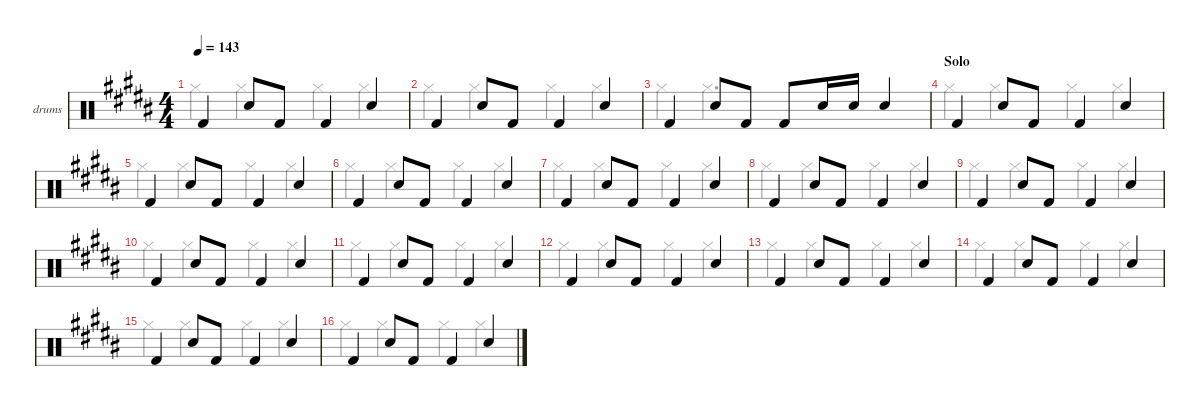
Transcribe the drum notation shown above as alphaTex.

\defaultSystemsLayout 4
\hideDynamics
\bracketExtendMode nobrackets
\firstSystemTrackNameOrientation horizontal
\otherSystemsTrackNameOrientation horizontal
\track ("Drumkit" "drums") {instrument percussion}
\staff {score}
\articulation defaults
\voice
\ts (4 4)
\tempo 143
\clef neutral
\ks g#minor "Kick (hit) 2"{acc forcenatural}.4{dy mf beam Up} "Snare (hit) 2"{acc forcenatural}.8{beam Up} "Kick (hit) 2"{acc forcenatural}.8{beam Up} "Kick (hit) 2"{acc forcenatural}.4{beam Up} "Snare (hit) 2"{acc forcenatural}.4{beam Up}
|
"Kick (hit) 2"{acc forcenatural}.4{beam Up} "Snare (hit) 2"{acc forcenatural}.8{beam Up} "Kick (hit) 2"{acc forcenatural}.8{beam Up} "Kick (hit) 2"{acc forcenatural}.4{beam Up} "Snare (hit) 2"{acc forcenatural}.4{beam Up} |
"Kick (hit) 2"{acc forcenatural}.4{beam Up} "Snare (hit) 2"{acc forcenatural}.8{beam Up} "Kick (hit) 2"{acc forcenatural}.8{beam Up} "Kick (hit) 2"{acc forcenatural}.8{beam Up} "Snare (hit) 2"{acc forcenatural}.16{beam Up} "Snare (hit) 2"{acc forcenatural}.16{beam Up} "Snare (hit) 2"{acc forcenatural}.4{beam Up} |
\section ("" "Solo")
"Kick (hit) 2"{acc forcenatural}.4{beam Up} "Snare (hit) 2"{acc forcenatural}.8{beam Up} "Kick (hit) 2"{acc forcenatural}.8{beam Up} "Kick (hit) 2"{acc forcenatural}.4{beam Up} "Snare (hit) 2"{acc forcenatural}.4{beam Up} |
"Kick (hit) 2"{acc forcenatural}.4{beam Up} "Snare (hit) 2"{acc forcenatural}.8{beam Up} "Kick (hit) 2"{acc forcenatural}.8{beam Up} "Kick (hit) 2"{acc forcenatural}.4{beam Up} "Snare (hit) 2"{acc forcenatural}.4{beam Up} |
"Kick (hit) 2"{acc forcenatural}.4{beam Up} "Snare (hit) 2"{acc forcenatural}.8{beam Up} "Kick (hit) 2"{acc forcenatural}.8{beam Up} "Kick (hit) 2"{acc forcenatural}.4{beam Up} "Snare (hit) 2"{acc forcenatural}.4{beam Up} |
"Kick (hit) 2"{acc forcenatural}.4{beam Up} "Snare (hit) 2"{acc forcenatural}.8{beam Up} "Kick (hit) 2"{acc forcenatural}.8{beam Up} "Kick (hit) 2"{acc forcenatural}.4{beam Up} "Snare (hit) 2"{acc forcenatural}.4{beam Up} |
"Kick (hit) 2"{acc forcenatural}.4{beam Up} "Snare (hit) 2"{acc forcenatural}.8{beam Up} "Kick (hit) 2"{acc forcenatural}.8{beam Up} "Kick (hit) 2"{acc forcenatural}.4{beam Up} "Snare (hit) 2"{acc forcenatural}.4{beam Up} |
"Kick (hit) 2"{acc forcenatural}.4{beam Up} "Snare (hit) 2"{acc forcenatural}.8{beam Up} "Kick (hit) 2"{acc forcenatural}.8{beam Up} "Kick (hit) 2"{acc forcenatural}.4{beam Up} "Snare (hit) 2"{acc forcenatural}.4{beam Up} |
"Kick (hit) 2"{acc forcenatural}.4{beam Up} "Snare (hit) 2"{acc forcenatural}.8{beam Up} "Kick (hit) 2"{acc forcenatural}.8{beam Up} "Kick (hit) 2"{acc forcenatural}.4{beam Up} "Snare (hit) 2"{acc forcenatural}.4{beam Up} |
"Kick (hit) 2"{acc forcenatural}.4{beam Up} "Snare (hit) 2"{acc forcenatural}.8{beam Up} "Kick (hit) 2"{acc forcenatural}.8{beam Up} "Kick (hit) 2"{acc forcenatural}.4{beam Up} "Snare (hit) 2"{acc forcenatural}.4{beam Up} |
"Kick (hit) 2"{acc forcenatural}.4{beam Up} "Snare (hit) 2"{acc forcenatural}.8{beam Up} "Kick (hit) 2"{acc forcenatural}.8{beam Up} "Kick (hit) 2"{acc forcenatural}.4{beam Up} "Snare (hit) 2"{acc forcenatural}.4{beam Up} |
"Kick (hit) 2"{acc forcenatural}.4{beam Up} "Snare (hit) 2"{acc forcenatural}.8{beam Up} "Kick (hit) 2"{acc forcenatural}.8{beam Up} "Kick (hit) 2"{acc forcenatural}.4{beam Up} "Snare (hit) 2"{acc forcenatural}.4{beam Up} |
"Kick (hit) 2"{acc forcenatural}.4{beam Up} "Snare (hit) 2"{acc forcenatural}.8{beam Up} "Kick (hit) 2"{acc forcenatural}.8{beam Up} "Kick (hit) 2"{acc forcenatural}.4{beam Up} "Snare (hit) 2"{acc forcenatural}.4{beam Up} |
"Kick (hit) 2"{acc forcenatural}.4{beam Up} "Snare (hit) 2"{acc forcenatural}.8{beam Up} "Kick (hit) 2"{acc forcenatural}.8{beam Up} "Kick (hit) 2"{acc forcenatural}.4{beam Up} "Snare (hit) 2"{acc forcenatural}.4{beam Up} |
"Kick (hit) 2"{acc forcenatural}.4{beam Up} "Snare (hit) 2"{acc forcenatural}.8{beam Up} "Kick (hit) 2"{acc forcenatural}.8{beam Up} "Kick (hit) 2"{acc forcenatural}.4{beam Up} "Snare (hit) 2"{acc forcenatural}.4{beam Up}
\voice
\clef neutral
\ottava regular
\simile none
\ks g#minor "Hi-Hat (closed)"{acc forcenatural}.4{dy mf beam Down} "Hi-Hat (closed)"{acc forcenatural}.4{beam Down} "Hi-Hat (closed)"{acc forcenatural}.4{beam Down} "Hi-Hat (closed)"{acc forcenatural}.4{beam Down}
|
"Hi-Hat (closed)"{acc forcenatural}.4{beam Down} "Hi-Hat (closed)"{acc forcenatural}.4{beam Down} "Hi-Hat (closed)"{acc forcenatural}.4{beam Down} "Hi-Hat (closed)"{acc forcenatural}.4{beam Down} |
"Hi-Hat (closed)"{acc forcenatural}.4{beam Down} "Hi-Hat (closed)"{acc forcenatural}.2{d beam Down} |
"Hi-Hat (closed)"{acc forcenatural}.4{beam Down} "Hi-Hat (closed)"{acc forcenatural}.4{beam Down} "Hi-Hat (closed)"{acc forcenatural}.4{beam Down} "Hi-Hat (closed)"{acc forcenatural}.4{beam Down} |
"Hi-Hat (closed)"{acc forcenatural}.4{beam Down} "Hi-Hat (closed)"{acc forcenatural}.4{beam Down} "Hi-Hat (closed)"{acc forcenatural}.4{beam Down} "Hi-Hat (closed)"{acc forcenatural}.4{beam Down} |
"Hi-Hat (closed)"{acc forcenatural}.4{beam Down} "Hi-Hat (closed)"{acc forcenatural}.4{beam Down} "Hi-Hat (closed)"{acc forcenatural}.4{beam Down} "Hi-Hat (closed)"{acc forcenatural}.4{beam Down} |
"Hi-Hat (closed)"{acc forcenatural}.4{beam Down} "Hi-Hat (closed)"{acc forcenatural}.4{beam Down} "Hi-Hat (closed)"{acc forcenatural}.4{beam Down} "Hi-Hat (closed)"{acc forcenatural}.4{beam Down} |
"Hi-Hat (closed)"{acc forcenatural}.4{beam Down} "Hi-Hat (closed)"{acc forcenatural}.4{beam Down} "Hi-Hat (closed)"{acc forcenatural}.4{beam Down} "Hi-Hat (closed)"{acc forcenatural}.4{beam Down} |
"Hi-Hat (closed)"{acc forcenatural}.4{beam Down} "Hi-Hat (closed)"{acc forcenatural}.4{beam Down} "Hi-Hat (closed)"{acc forcenatural}.4{beam Down} "Hi-Hat (closed)"{acc forcenatural}.4{beam Down} |
"Hi-Hat (closed)"{acc forcenatural}.4{beam Down} "Hi-Hat (closed)"{acc forcenatural}.4{beam Down} "Hi-Hat (closed)"{acc forcenatural}.4{beam Down} "Hi-Hat (closed)"{acc forcenatural}.4{beam Down} |
"Hi-Hat (closed)"{acc forcenatural}.4{beam Down} "Hi-Hat (closed)"{acc forcenatural}.4{beam Down} "Hi-Hat (closed)"{acc forcenatural}.4{beam Down} "Hi-Hat (closed)"{acc forcenatural}.4{beam Down} |
"Hi-Hat (closed)"{acc forcenatural}.4{beam Down} "Hi-Hat (closed)"{acc forcenatural}.4{beam Down} "Hi-Hat (closed)"{acc forcenatural}.4{beam Down} "Hi-Hat (closed)"{acc forcenatural}.4{beam Down} |
"Hi-Hat (closed)"{acc forcenatural}.4{beam Down} "Hi-Hat (closed)"{acc forcenatural}.4{beam Down} "Hi-Hat (closed)"{acc forcenatural}.4{beam Down} "Hi-Hat (closed)"{acc forcenatural}.4{beam Down} |
"Hi-Hat (closed)"{acc forcenatural}.4{beam Down} "Hi-Hat (closed)"{acc forcenatural}.4{beam Down} "Hi-Hat (closed)"{acc forcenatural}.4{beam Down} "Hi-Hat (closed)"{acc forcenatural}.4{beam Down} |
"Hi-Hat (closed)"{acc forcenatural}.4{beam Down} "Hi-Hat (closed)"{acc forcenatural}.4{beam Down} "Hi-Hat (closed)"{acc forcenatural}.4{beam Down} "Hi-Hat (closed)"{acc forcenatural}.4{beam Down} |
"Hi-Hat (closed)"{acc forcenatural}.4{beam Down} "Hi-Hat (closed)"{acc forcenatural}.4{beam Down} "Hi-Hat (closed)"{acc forcenatural}.4{beam Down} "Hi-Hat (closed)"{acc forcenatural}.4{beam Down}
